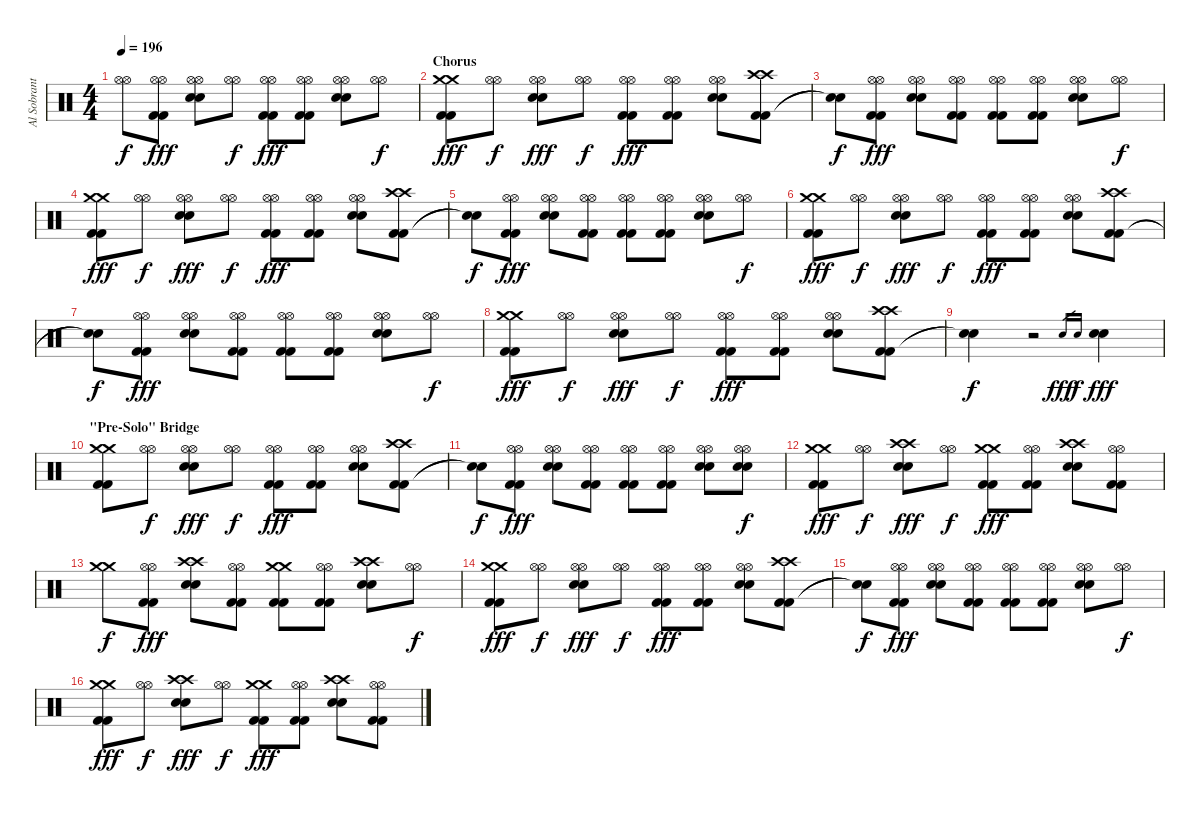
\track ("Al Sobrante (Drums)" "Al Sobrant") {instrument percussion}
\staff {score}
\articulation defaults
\ts (4 4)
\tempo 196
\clef neutral
\ks c
("Hi-Hat (open)" "Hi-Hat (open)").8{dy f} ("Kick (hit) 2" "Kick (hit) 2" "Hi-Hat (open)" "Hi-Hat (open)").8{dy fff} ("Electric Snare (hit)" "Electric Snare (hit)" "Hi-Hat (open)" "Hi-Hat (open)").8 ("Hi-Hat (open)" "Hi-Hat (open)").8{dy f} ("Kick (hit) 2" "Kick (hit) 2" "Hi-Hat (open)" "Hi-Hat (open)").8{dy fff} ("Kick (hit) 2" "Kick (hit) 2" "Hi-Hat (open)" "Hi-Hat (open)").8 ("Electric Snare (hit)" "Electric Snare (hit)" "Hi-Hat (open)" "Hi-Hat (open)").8 ("Hi-Hat (open)" "Hi-Hat (open)").8{dy f} |
\section ("" "Chorus")
("Kick (hit) 2" "Kick (hit) 2" "Crash medium (hit)" "Crash medium (hit)").8{dy fff} ("Hi-Hat (open)" "Hi-Hat (open)").8{dy f} ("Electric Snare (hit)" "Electric Snare (hit)" "Hi-Hat (open)" "Hi-Hat (open)").8{dy fff} ("Hi-Hat (open)" "Hi-Hat (open)").8{dy f} ("Kick (hit) 2" "Kick (hit) 2" "Hi-Hat (open)" "Hi-Hat (open)").8{dy fff} ("Kick (hit) 2" "Kick (hit) 2" "Hi-Hat (open)" "Hi-Hat (open)").8 ("Electric Snare (hit)" "Electric Snare (hit)" "Hi-Hat (open)" "Hi-Hat (open)").8 ("Kick (hit) 2" "Kick (hit) 2" "Crash high (hit)" "Crash high (hit)").8 |
("Snare (hit)"{t} "Snare (hit)"{t}).8{dy f} ("Kick (hit) 2" "Kick (hit) 2" "Hi-Hat (open)" "Hi-Hat (open)").8{dy fff} ("Electric Snare (hit)" "Electric Snare (hit)" "Hi-Hat (open)" "Hi-Hat (open)").8 ("Kick (hit) 2" "Kick (hit) 2" "Hi-Hat (open)" "Hi-Hat (open)").8 ("Kick (hit) 2" "Kick (hit) 2" "Hi-Hat (open)" "Hi-Hat (open)").8 ("Kick (hit) 2" "Kick (hit) 2" "Hi-Hat (open)" "Hi-Hat (open)").8 ("Electric Snare (hit)" "Electric Snare (hit)" "Hi-Hat (open)" "Hi-Hat (open)").8 ("Hi-Hat (open)" "Hi-Hat (open)").8{dy f} |
("Kick (hit) 2" "Kick (hit) 2" "Crash medium (hit)" "Crash medium (hit)").8{dy fff} ("Hi-Hat (open)" "Hi-Hat (open)").8{dy f} ("Electric Snare (hit)" "Electric Snare (hit)" "Hi-Hat (open)" "Hi-Hat (open)").8{dy fff} ("Hi-Hat (open)" "Hi-Hat (open)").8{dy f} ("Kick (hit) 2" "Kick (hit) 2" "Hi-Hat (open)" "Hi-Hat (open)").8{dy fff} ("Kick (hit) 2" "Kick (hit) 2" "Hi-Hat (open)" "Hi-Hat (open)").8 ("Electric Snare (hit)" "Electric Snare (hit)" "Hi-Hat (open)" "Hi-Hat (open)").8 ("Kick (hit) 2" "Kick (hit) 2" "Crash high (hit)" "Crash high (hit)").8 |
("Snare (hit)"{t} "Snare (hit)"{t}).8{dy f} ("Kick (hit) 2" "Kick (hit) 2" "Hi-Hat (open)" "Hi-Hat (open)").8{dy fff} ("Electric Snare (hit)" "Electric Snare (hit)" "Hi-Hat (open)" "Hi-Hat (open)").8 ("Kick (hit) 2" "Kick (hit) 2" "Hi-Hat (open)" "Hi-Hat (open)").8 ("Kick (hit) 2" "Kick (hit) 2" "Hi-Hat (open)" "Hi-Hat (open)").8 ("Kick (hit) 2" "Kick (hit) 2" "Hi-Hat (open)" "Hi-Hat (open)").8 ("Electric Snare (hit)" "Electric Snare (hit)" "Hi-Hat (open)" "Hi-Hat (open)").8 ("Hi-Hat (open)" "Hi-Hat (open)").8{dy f} |
("Kick (hit) 2" "Kick (hit) 2" "Crash medium (hit)" "Crash medium (hit)").8{dy fff} ("Hi-Hat (open)" "Hi-Hat (open)").8{dy f} ("Electric Snare (hit)" "Electric Snare (hit)" "Hi-Hat (open)" "Hi-Hat (open)").8{dy fff} ("Hi-Hat (open)" "Hi-Hat (open)").8{dy f} ("Kick (hit) 2" "Kick (hit) 2" "Hi-Hat (open)" "Hi-Hat (open)").8{dy fff} ("Kick (hit) 2" "Kick (hit) 2" "Hi-Hat (open)" "Hi-Hat (open)").8 ("Electric Snare (hit)" "Electric Snare (hit)" "Hi-Hat (open)" "Hi-Hat (open)").8 ("Kick (hit) 2" "Kick (hit) 2" "Crash high (hit)" "Crash high (hit)").8 |
("Snare (hit)"{t} "Snare (hit)"{t}).8{dy f} ("Kick (hit) 2" "Kick (hit) 2" "Hi-Hat (open)" "Hi-Hat (open)").8{dy fff} ("Electric Snare (hit)" "Electric Snare (hit)" "Hi-Hat (open)" "Hi-Hat (open)").8 ("Kick (hit) 2" "Kick (hit) 2" "Hi-Hat (open)" "Hi-Hat (open)").8 ("Kick (hit) 2" "Kick (hit) 2" "Hi-Hat (open)" "Hi-Hat (open)").8 ("Kick (hit) 2" "Kick (hit) 2" "Hi-Hat (open)" "Hi-Hat (open)").8 ("Electric Snare (hit)" "Electric Snare (hit)" "Hi-Hat (open)" "Hi-Hat (open)").8 ("Hi-Hat (open)" "Hi-Hat (open)").8{dy f} |
("Kick (hit) 2" "Kick (hit) 2" "Crash medium (hit)" "Crash medium (hit)").8{dy fff} ("Hi-Hat (open)" "Hi-Hat (open)").8{dy f} ("Electric Snare (hit)" "Electric Snare (hit)" "Hi-Hat (open)" "Hi-Hat (open)").8{dy fff} ("Hi-Hat (open)" "Hi-Hat (open)").8{dy f} ("Kick (hit) 2" "Kick (hit) 2" "Hi-Hat (open)" "Hi-Hat (open)").8{dy fff} ("Kick (hit) 2" "Kick (hit) 2" "Hi-Hat (open)" "Hi-Hat (open)").8 ("Electric Snare (hit)" "Electric Snare (hit)" "Hi-Hat (open)" "Hi-Hat (open)").8 ("Kick (hit) 2" "Kick (hit) 2" "Crash high (hit)" "Crash high (hit)").8 |
("Snare (hit)"{t} "Snare (hit)"{t}).4{dy f} r.2 "Electric Snare (hit)".16{gr dy fff} "Electric Snare (hit)".16{gr dy f} ("Electric Snare (hit)" "Electric Snare (hit)").4{dy fff} |
\section ("" "\"Pre-Solo\" Bridge")
("Kick (hit) 2" "Kick (hit) 2" "Crash medium (hit)" "Crash medium (hit)").8 ("Hi-Hat (open)" "Hi-Hat (open)").8{dy f} ("Electric Snare (hit)" "Electric Snare (hit)" "Hi-Hat (open)" "Hi-Hat (open)").8{dy fff} ("Hi-Hat (open)" "Hi-Hat (open)").8{dy f} ("Kick (hit) 2" "Kick (hit) 2" "Hi-Hat (open)" "Hi-Hat (open)").8{dy fff} ("Kick (hit) 2" "Kick (hit) 2" "Hi-Hat (open)" "Hi-Hat (open)").8 ("Electric Snare (hit)" "Electric Snare (hit)" "Hi-Hat (open)" "Hi-Hat (open)").8 ("Kick (hit) 2" "Kick (hit) 2" "Crash high (hit)" "Crash high (hit)").8 |
("Snare (hit)"{t} "Snare (hit)"{t}).8{dy f} ("Kick (hit) 2" "Kick (hit) 2" "Hi-Hat (open)" "Hi-Hat (open)").8{dy fff} ("Electric Snare (hit)" "Electric Snare (hit)" "Hi-Hat (open)" "Hi-Hat (open)").8 ("Kick (hit) 2" "Kick (hit) 2" "Hi-Hat (open)" "Hi-Hat (open)").8 ("Kick (hit) 2" "Kick (hit) 2" "Hi-Hat (open)" "Hi-Hat (open)").8 ("Kick (hit) 2" "Kick (hit) 2" "Hi-Hat (open)" "Hi-Hat (open)").8 ("Electric Snare (hit)" "Electric Snare (hit)" "Hi-Hat (open)" "Hi-Hat (open)").8 ("Electric Snare (hit)" "Electric Snare (hit)" "Hi-Hat (open)" "Hi-Hat (open)").8{dy f} |
("Kick (hit) 2" "Kick (hit) 2" "Crash medium (hit)" "Crash medium (hit)").8{dy fff} ("Hi-Hat (open)" "Hi-Hat (open)").8{dy f} ("Electric Snare (hit)" "Electric Snare (hit)" "Crash high (hit)" "Crash high (hit)").8{dy fff} ("Hi-Hat (open)" "Hi-Hat (open)").8{dy f} ("Kick (hit) 2" "Kick (hit) 2" "Crash medium (hit)" "Crash medium (hit)").8{dy fff} ("Kick (hit) 2" "Kick (hit) 2" "Hi-Hat (open)" "Hi-Hat (open)").8 ("Electric Snare (hit)" "Electric Snare (hit)" "Crash high (hit)" "Crash high (hit)").8 ("Kick (hit) 2" "Kick (hit) 2" "Hi-Hat (open)" "Hi-Hat (open)").8 |
("Crash medium (hit)" "Crash medium (hit)").8{dy f} ("Kick (hit) 2" "Kick (hit) 2" "Hi-Hat (open)" "Hi-Hat (open)").8{dy fff} ("Electric Snare (hit)" "Electric Snare (hit)" "Crash high (hit)" "Crash high (hit)").8 ("Kick (hit) 2" "Kick (hit) 2" "Hi-Hat (open)" "Hi-Hat (open)").8 ("Kick (hit) 2" "Kick (hit) 2" "Crash medium (hit)" "Crash medium (hit)").8 ("Kick (hit) 2" "Kick (hit) 2" "Hi-Hat (open)" "Hi-Hat (open)").8 ("Electric Snare (hit)" "Electric Snare (hit)" "Crash high (hit)" "Crash high (hit)").8 ("Hi-Hat (open)" "Hi-Hat (open)").8{dy f} |
("Kick (hit) 2" "Kick (hit) 2" "Crash medium (hit)" "Crash medium (hit)").8{dy fff} ("Hi-Hat (open)" "Hi-Hat (open)").8{dy f} ("Electric Snare (hit)" "Electric Snare (hit)" "Hi-Hat (open)" "Hi-Hat (open)").8{dy fff} ("Hi-Hat (open)" "Hi-Hat (open)").8{dy f} ("Kick (hit) 2" "Kick (hit) 2" "Hi-Hat (open)" "Hi-Hat (open)").8{dy fff} ("Kick (hit) 2" "Kick (hit) 2" "Hi-Hat (open)" "Hi-Hat (open)").8 ("Electric Snare (hit)" "Electric Snare (hit)" "Hi-Hat (open)" "Hi-Hat (open)").8 ("Kick (hit) 2" "Kick (hit) 2" "Crash high (hit)" "Crash high (hit)").8 |
("Snare (hit)"{t} "Snare (hit)"{t}).8{dy f} ("Kick (hit) 2" "Kick (hit) 2" "Hi-Hat (open)" "Hi-Hat (open)").8{dy fff} ("Electric Snare (hit)" "Electric Snare (hit)" "Hi-Hat (open)" "Hi-Hat (open)").8 ("Kick (hit) 2" "Kick (hit) 2" "Hi-Hat (open)" "Hi-Hat (open)").8 ("Kick (hit) 2" "Kick (hit) 2" "Hi-Hat (open)" "Hi-Hat (open)").8 ("Kick (hit) 2" "Kick (hit) 2" "Hi-Hat (open)" "Hi-Hat (open)").8 ("Electric Snare (hit)" "Electric Snare (hit)" "Hi-Hat (open)" "Hi-Hat (open)").8 ("Hi-Hat (open)" "Hi-Hat (open)").8{dy f} |
("Kick (hit) 2" "Kick (hit) 2" "Crash medium (hit)" "Crash medium (hit)").8{dy fff} ("Hi-Hat (open)" "Hi-Hat (open)").8{dy f} ("Electric Snare (hit)" "Electric Snare (hit)" "Crash high (hit)" "Crash high (hit)").8{dy fff} ("Hi-Hat (open)" "Hi-Hat (open)").8{dy f} ("Kick (hit) 2" "Kick (hit) 2" "Crash medium (hit)" "Crash medium (hit)").8{dy fff} ("Kick (hit) 2" "Kick (hit) 2" "Hi-Hat (open)" "Hi-Hat (open)").8 ("Electric Snare (hit)" "Electric Snare (hit)" "Crash high (hit)" "Crash high (hit)").8 ("Kick (hit) 2" "Kick (hit) 2" "Hi-Hat (open)" "Hi-Hat (open)").8
